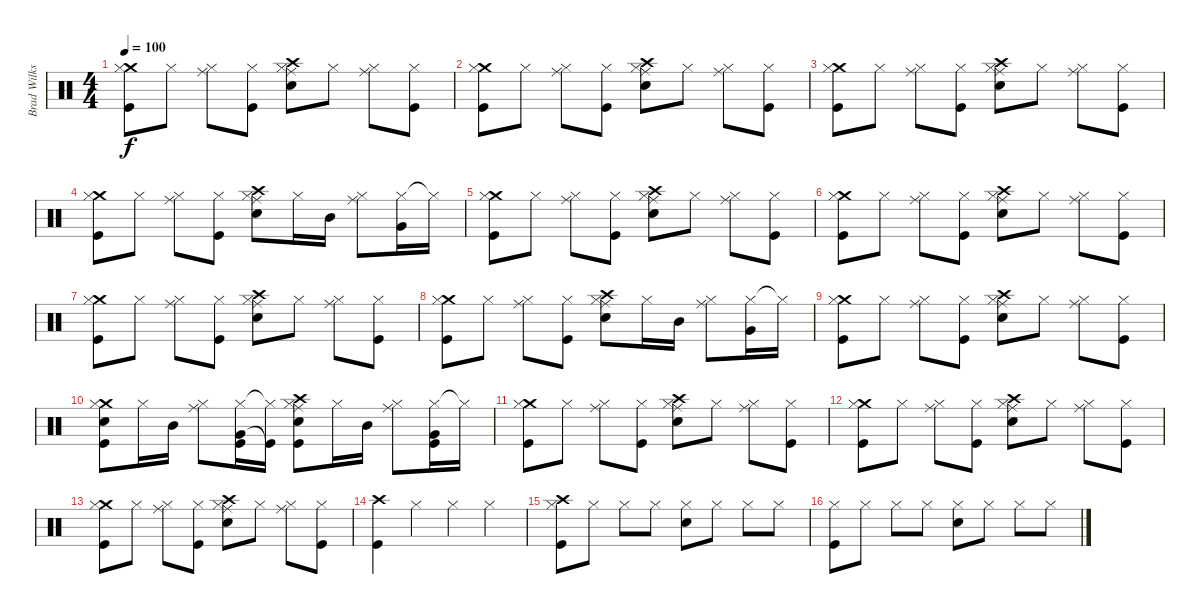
\track ("Brad Wilks (Percussion)" "Brad Wilks") {instrument percussion}
\staff {score}
\articulation defaults
\ts (4 4)
\tempo 100
\clef neutral
\ks c
("Crash medium (hit)" "Hi-Hat (closed)" "Kick (hit)").8{dy f} "Hi-Hat (closed)".8 ("Ride (middle)" "Hi-Hat (closed)").8 ("Hi-Hat (closed)" "Kick (hit)").8 ("Ride (middle)" "Hi-Hat (closed)" "Snare (hit) 2" "Crash high (hit)").8 "Hi-Hat (closed)".8 ("Ride (middle)" "Hi-Hat (closed)").8 ("Hi-Hat (closed)" "Kick (hit)").8 |
("Crash medium (hit)" "Hi-Hat (closed)" "Kick (hit)").8 "Hi-Hat (closed)".8 ("Ride (middle)" "Hi-Hat (closed)").8 ("Hi-Hat (closed)" "Kick (hit)").8 ("Ride (middle)" "Hi-Hat (closed)" "Snare (hit) 2" "Crash high (hit)").8 "Hi-Hat (closed)".8 ("Ride (middle)" "Hi-Hat (closed)").8 ("Hi-Hat (closed)" "Kick (hit)").8 |
("Crash medium (hit)" "Hi-Hat (closed)" "Kick (hit)").8 "Hi-Hat (closed)".8 ("Ride (middle)" "Hi-Hat (closed)").8 ("Hi-Hat (closed)" "Kick (hit)").8 ("Ride (middle)" "Hi-Hat (closed)" "Snare (hit) 2" "Crash high (hit)").8 "Hi-Hat (closed)".8 ("Ride (middle)" "Hi-Hat (closed)").8 ("Hi-Hat (closed)" "Kick (hit)").8 |
("Crash medium (hit)" "Hi-Hat (closed)" "Kick (hit)").8 "Hi-Hat (closed)".8 ("Ride (middle)" "Hi-Hat (closed)").8 ("Hi-Hat (closed)" "Kick (hit)").8 ("Ride (middle)" "Hi-Hat (closed)" "Snare (hit) 2" "Crash high (hit)").8 "Hi-Hat (closed)".16 "Mid Tom (hit)".16 ("Ride (middle)" "Hi-Hat (closed)").8 ("Hi-Hat (closed)" "Very Low Tom (hit)").16 "Hi-Hat (closed)"{t}.16 |
("Crash medium (hit)" "Hi-Hat (closed)" "Kick (hit)").8 "Hi-Hat (closed)".8 ("Ride (middle)" "Hi-Hat (closed)").8 ("Hi-Hat (closed)" "Kick (hit)").8 ("Ride (middle)" "Hi-Hat (closed)" "Snare (hit) 2" "Crash high (hit)").8 "Hi-Hat (closed)".8 ("Ride (middle)" "Hi-Hat (closed)").8 ("Hi-Hat (closed)" "Kick (hit)").8 |
("Crash medium (hit)" "Hi-Hat (closed)" "Kick (hit)").8 "Hi-Hat (closed)".8 ("Ride (middle)" "Hi-Hat (closed)").8 ("Hi-Hat (closed)" "Kick (hit)").8 ("Ride (middle)" "Hi-Hat (closed)" "Snare (hit) 2" "Crash high (hit)").8 "Hi-Hat (closed)".8 ("Ride (middle)" "Hi-Hat (closed)").8 ("Hi-Hat (closed)" "Kick (hit)").8 |
("Crash medium (hit)" "Hi-Hat (closed)" "Kick (hit)").8 "Hi-Hat (closed)".8 ("Ride (middle)" "Hi-Hat (closed)").8 ("Hi-Hat (closed)" "Kick (hit)").8 ("Ride (middle)" "Hi-Hat (closed)" "Snare (hit) 2" "Crash high (hit)").8 "Hi-Hat (closed)".8 ("Ride (middle)" "Hi-Hat (closed)").8 ("Hi-Hat (closed)" "Kick (hit)").8 |
("Crash medium (hit)" "Hi-Hat (closed)" "Kick (hit)").8 "Hi-Hat (closed)".8 ("Ride (middle)" "Hi-Hat (closed)").8 ("Hi-Hat (closed)" "Kick (hit)").8 ("Ride (middle)" "Hi-Hat (closed)" "Snare (hit) 2" "Crash high (hit)").8 "Hi-Hat (closed)".16 "Mid Tom (hit)".16 ("Ride (middle)" "Hi-Hat (closed)").8 ("Hi-Hat (closed)" "Very Low Tom (hit)").16 "Hi-Hat (closed)"{t}.16 |
("Crash medium (hit)" "Hi-Hat (closed)" "Kick (hit)").8 "Hi-Hat (closed)".8 ("Ride (middle)" "Hi-Hat (closed)").8 ("Hi-Hat (closed)" "Kick (hit)").8 ("Ride (middle)" "Hi-Hat (closed)" "Snare (hit) 2" "Crash high (hit)").8 "Hi-Hat (closed)".8 ("Ride (middle)" "Hi-Hat (closed)").8 ("Hi-Hat (closed)" "Kick (hit)").8 |
("Crash medium (hit)" "Hi-Hat (closed)" "Snare (hit) 2" "Kick (hit)").8 "Hi-Hat (closed)".16 "Mid Tom (hit)".16 ("Ride (middle)" "Hi-Hat (closed)").8 ("Hi-Hat (closed)" "Very Low Tom (hit)" "Kick (hit)").16 ("Hi-Hat (closed)"{t} "Kick (hit)"{t}).16 ("Ride (middle)" "Hi-Hat (closed)" "Snare (hit) 2" "Crash high (hit)" "Kick (hit)").8 "Hi-Hat (closed)".16 "Mid Tom (hit)".16 ("Ride (middle)" "Hi-Hat (closed)").8 ("Hi-Hat (closed)" "Very Low Tom (hit)" "Kick (hit)").16 "Hi-Hat (closed)"{t}.16 |
("Crash medium (hit)" "Hi-Hat (closed)" "Kick (hit)").8 "Hi-Hat (closed)".8 ("Ride (middle)" "Hi-Hat (closed)").8 ("Hi-Hat (closed)" "Kick (hit)").8 ("Ride (middle)" "Hi-Hat (closed)" "Snare (hit) 2" "Crash high (hit)").8 "Hi-Hat (closed)".8 ("Ride (middle)" "Hi-Hat (closed)").8 ("Hi-Hat (closed)" "Kick (hit)").8 |
("Crash medium (hit)" "Hi-Hat (closed)" "Kick (hit)").8 "Hi-Hat (closed)".8 ("Ride (middle)" "Hi-Hat (closed)").8 ("Hi-Hat (closed)" "Kick (hit)").8 ("Ride (middle)" "Hi-Hat (closed)" "Snare (hit) 2" "Crash high (hit)").8 "Hi-Hat (closed)".8 ("Ride (middle)" "Hi-Hat (closed)").8 ("Hi-Hat (closed)" "Kick (hit)").8 |
("Crash medium (hit)" "Hi-Hat (closed)" "Kick (hit)").8 "Hi-Hat (closed)".8 ("Ride (middle)" "Hi-Hat (closed)").8 ("Hi-Hat (closed)" "Kick (hit)").8 ("Ride (middle)" "Hi-Hat (closed)" "Snare (hit) 2" "Crash high (hit)").8 "Hi-Hat (closed)".8 ("Ride (middle)" "Hi-Hat (closed)").8 ("Hi-Hat (closed)" "Kick (hit)").8 |
("Crash high (hit)" "Kick (hit)").4 "Hi-Hat (closed)".4 "Hi-Hat (closed)".4 "Hi-Hat (closed)".4 |
("Crash high (hit)" "Hi-Hat (closed)" "Kick (hit)").8 "Hi-Hat (closed)".8 "Hi-Hat (closed)".8 "Hi-Hat (closed)".8 ("Hi-Hat (closed)" "Electric Snare (hit)").8 "Hi-Hat (closed)".8 "Hi-Hat (closed)".8 "Hi-Hat (closed)".8 |
("Hi-Hat (closed)" "Kick (hit)").8 "Hi-Hat (closed)".8 "Hi-Hat (closed)".8 "Hi-Hat (closed)".8 ("Hi-Hat (closed)" "Electric Snare (hit)").8 "Hi-Hat (closed)".8 "Hi-Hat (closed)".8 "Hi-Hat (closed)".8
